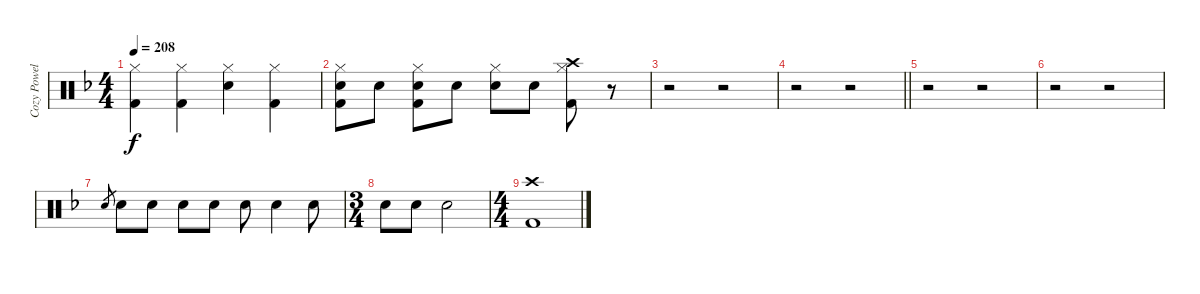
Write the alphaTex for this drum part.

\track ("Cozy Powell" "Cozy Powel") {instrument percussion}
\staff {score}
\articulation defaults
\ts (4 4)
\tempo 208
\clef neutral
\ks f
("Hi-Hat (closed)" "Kick (hit) 2").4{dy f} ("Hi-Hat (closed)" "Kick (hit) 2").4 ("Hi-Hat (closed)" "Snare (hit) 2").4 ("Hi-Hat (closed)" "Kick (hit) 2").4 |
("Hi-Hat (closed)" "Kick (hit) 2" "Snare (hit) 2").8 "Snare (hit) 2".8 ("Hi-Hat (closed)" "Kick (hit) 2" "Snare (hit) 2").8 "Snare (hit) 2".8 ("Hi-Hat (closed)" "Snare (hit) 2").8 "Snare (hit) 2".8 ("Hi-Hat (closed)" "Crash high (hit)" "Kick (hit) 2").8 r.8 |
r.2 r.2 |
\barLineRight lightlight
r.2 r.2 |
r.2 r.2 |
r.2 r.2 |
"Snare (hit) 2".8{gr} "Snare (hit) 2".8 "Snare (hit) 2".8 "Snare (hit) 2".8 "Snare (hit) 2".8 "Snare (hit) 2".8 "Snare (hit) 2".4 "Snare (hit) 2".8 |
\ts (3 4)
"Snare (hit) 2".8 "Snare (hit) 2".8 "Snare (hit) 2".2 |
\ts (4 4)
("Crash high (hit)" "Kick (hit) 2").1
